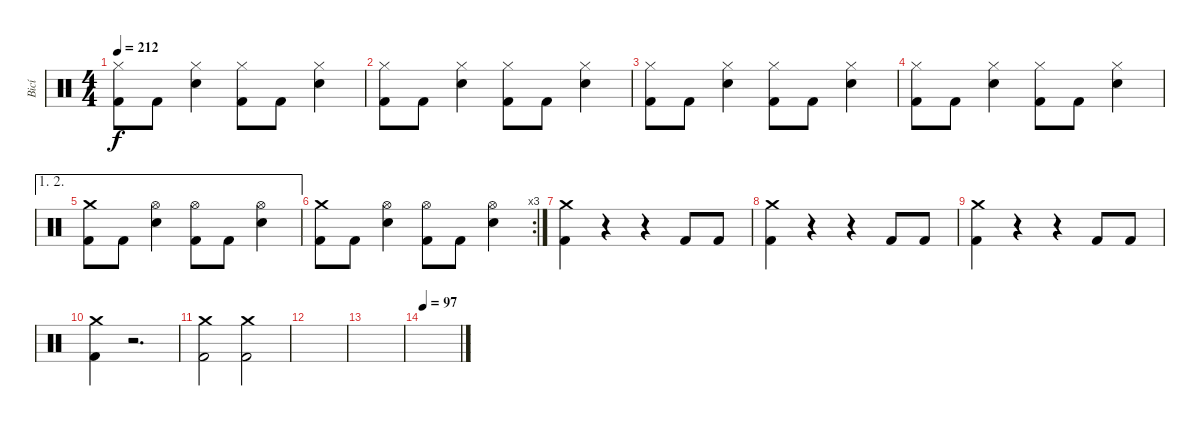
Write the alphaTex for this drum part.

\track ("Bicí" "Bicí") {instrument percussion}
\staff {score}
\articulation defaults
\ts (4 4)
\tempo 212
\clef neutral
\ks c
("Kick (hit) 2" "Hi-Hat (closed)").8{dy f} "Kick (hit) 2".8 ("Snare (hit) 2" "Hi-Hat (closed)").4 ("Kick (hit) 2" "Hi-Hat (closed)").8 "Kick (hit) 2".8 ("Snare (hit) 2" "Hi-Hat (closed)").4 |
("Kick (hit) 2" "Hi-Hat (closed)").8 "Kick (hit) 2".8 ("Snare (hit) 2" "Hi-Hat (closed)").4 ("Kick (hit) 2" "Hi-Hat (closed)").8 "Kick (hit) 2".8 ("Snare (hit) 2" "Hi-Hat (closed)").4 |
("Kick (hit) 2" "Hi-Hat (closed)").8 "Kick (hit) 2".8 ("Snare (hit) 2" "Hi-Hat (closed)").4 ("Kick (hit) 2" "Hi-Hat (closed)").8 "Kick (hit) 2".8 ("Snare (hit) 2" "Hi-Hat (closed)").4 |
("Kick (hit) 2" "Hi-Hat (closed)").8 "Kick (hit) 2".8 ("Snare (hit) 2" "Hi-Hat (closed)").4 ("Kick (hit) 2" "Hi-Hat (closed)").8 "Kick (hit) 2".8 ("Snare (hit) 2" "Hi-Hat (closed)").4 |
\ae (1 2)
("Kick (hit) 2" "Crash medium (hit)").8 "Kick (hit) 2".8 ("Snare (hit) 2" "Hi-Hat (open)").4 ("Kick (hit) 2" "Hi-Hat (open)").8 "Kick (hit) 2".8 ("Snare (hit) 2" "Hi-Hat (open)").4 |
\rc 3
("Kick (hit) 2" "Crash medium (hit)").8 "Kick (hit) 2".8 ("Snare (hit) 2" "Hi-Hat (open)").4 ("Kick (hit) 2" "Hi-Hat (open)").8 "Kick (hit) 2".8 ("Snare (hit) 2" "Hi-Hat (open)").4 |
("Kick (hit) 2" "Crash medium (hit)").4 r.4 r.4 "Kick (hit) 2".8 "Kick (hit) 2".8 |
("Kick (hit) 2" "Crash medium (hit)").4 r.4 r.4 "Kick (hit) 2".8 "Kick (hit) 2".8 |
("Kick (hit) 2" "Crash medium (hit)").4 r.4 r.4 "Kick (hit) 2".8 "Kick (hit) 2".8 |
("Kick (hit) 2" "Crash medium (hit)").4 r.2{d} |
("Kick (hit) 2" "Crash medium (hit)").2 ("Kick (hit) 2" "Crash medium (hit)").2 |
|
|
\tempo 97
